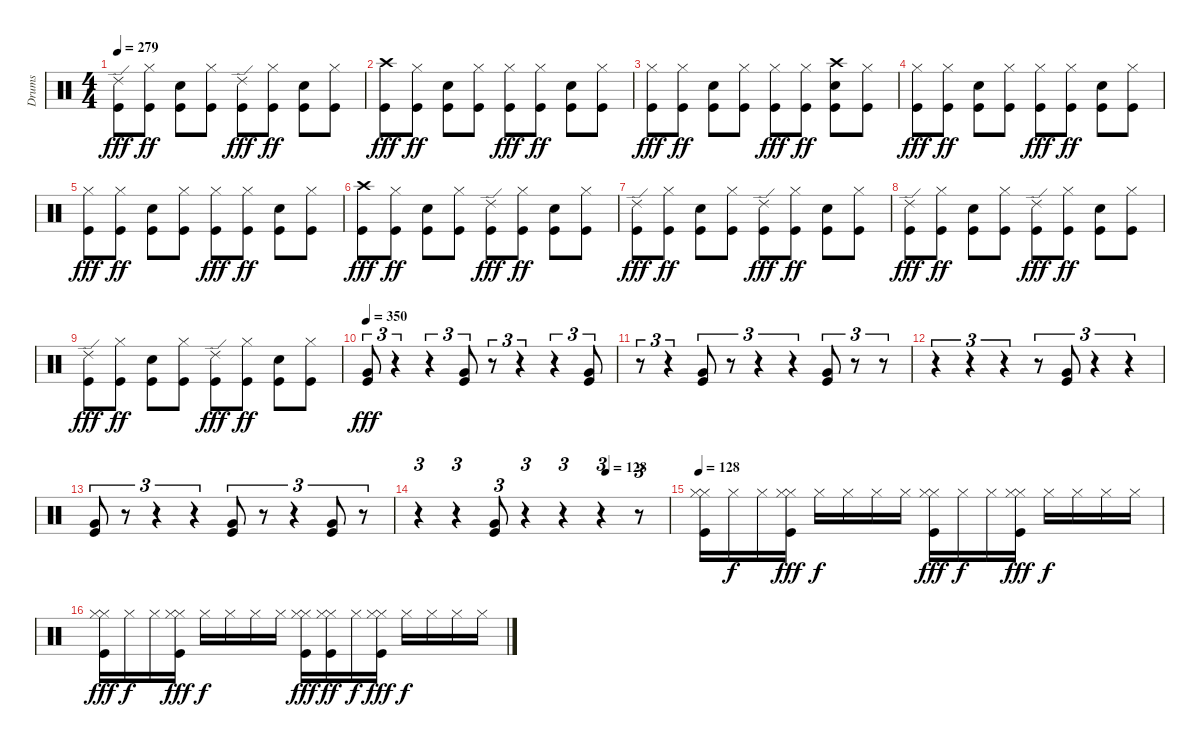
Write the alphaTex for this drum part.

\track ("Drums" "Drums") {instrument percussion}
\staff {score}
\articulation defaults
\ts (4 4)
\tempo 279
\clef neutral
\ks c
("Ride (edge) 2" "Kick (hit)").8{dy fff} ("Hi-Hat (closed)" "Kick (hit)").8{dy ff} ("Snare (hit) 2" "Kick (hit)").8 ("Hi-Hat (closed)" "Kick (hit)").8 ("Ride (edge) 2" "Kick (hit)").8{dy fff} ("Hi-Hat (closed)" "Kick (hit)").8{dy ff} ("Snare (hit) 2" "Kick (hit)").8 ("Hi-Hat (closed)" "Kick (hit)").8 |
("Crash high (hit)" "Kick (hit)").8{dy fff} ("Hi-Hat (closed)" "Kick (hit)").8{dy ff} ("Snare (hit) 2" "Kick (hit)").8 ("Hi-Hat (closed)" "Kick (hit)").8 ("Hi-Hat (closed)" "Kick (hit)").8{dy fff} ("Hi-Hat (closed)" "Kick (hit)").8{dy ff} ("Snare (hit) 2" "Kick (hit)").8 ("Hi-Hat (closed)" "Kick (hit)").8 |
("Hi-Hat (closed)" "Kick (hit)").8{dy fff} ("Hi-Hat (closed)" "Kick (hit)").8{dy ff} ("Snare (hit) 2" "Kick (hit)").8 ("Hi-Hat (closed)" "Kick (hit)").8 ("Hi-Hat (closed)" "Kick (hit)").8{dy fff} ("Hi-Hat (closed)" "Kick (hit)").8{dy ff} ("Crash high (hit)" "Snare (hit) 2" "Kick (hit)").8 ("Hi-Hat (closed)" "Kick (hit)").8 |
("Hi-Hat (closed)" "Kick (hit)").8{dy fff} ("Hi-Hat (closed)" "Kick (hit)").8{dy ff} ("Snare (hit) 2" "Kick (hit)").8 ("Hi-Hat (closed)" "Kick (hit)").8 ("Hi-Hat (closed)" "Kick (hit)").8{dy fff} ("Hi-Hat (closed)" "Kick (hit)").8{dy ff} ("Snare (hit) 2" "Kick (hit)").8 ("Hi-Hat (closed)" "Kick (hit)").8 |
("Hi-Hat (closed)" "Kick (hit)").8{dy fff} ("Hi-Hat (closed)" "Kick (hit)").8{dy ff} ("Snare (hit) 2" "Kick (hit)").8 ("Hi-Hat (closed)" "Kick (hit)").8 ("Hi-Hat (closed)" "Kick (hit)").8{dy fff} ("Hi-Hat (closed)" "Kick (hit)").8{dy ff} ("Snare (hit) 2" "Kick (hit)").8 ("Hi-Hat (closed)" "Kick (hit)").8 |
("Crash high (hit)" "Kick (hit)").8{dy fff} ("Hi-Hat (closed)" "Kick (hit)").8{dy ff} ("Snare (hit) 2" "Kick (hit)").8 ("Hi-Hat (closed)" "Kick (hit)").8 ("Ride (edge) 2" "Kick (hit)").8{dy fff} ("Hi-Hat (closed)" "Kick (hit)").8{dy ff} ("Snare (hit) 2" "Kick (hit)").8 ("Hi-Hat (closed)" "Kick (hit)").8 |
("Ride (edge) 2" "Kick (hit)").8{dy fff} ("Hi-Hat (closed)" "Kick (hit)").8{dy ff} ("Snare (hit) 2" "Kick (hit)").8 ("Hi-Hat (closed)" "Kick (hit)").8 ("Ride (edge) 2" "Kick (hit)").8{dy fff} ("Hi-Hat (closed)" "Kick (hit)").8{dy ff} ("Snare (hit) 2" "Kick (hit)").8 ("Hi-Hat (closed)" "Kick (hit)").8 |
("Ride (edge) 2" "Kick (hit)").8{dy fff} ("Hi-Hat (closed)" "Kick (hit)").8{dy ff} ("Snare (hit) 2" "Kick (hit)").8 ("Hi-Hat (closed)" "Kick (hit)").8 ("Ride (edge) 2" "Kick (hit)").8{dy fff} ("Hi-Hat (closed)" "Kick (hit)").8{dy ff} ("Snare (hit) 2" "Kick (hit)").8 ("Hi-Hat (closed)" "Kick (hit)").8 |
("Ride (edge) 2" "Kick (hit)").8{dy fff} ("Hi-Hat (closed)" "Kick (hit)").8{dy ff} ("Snare (hit) 2" "Kick (hit)").8 ("Hi-Hat (closed)" "Kick (hit)").8 ("Ride (edge) 2" "Kick (hit)").8{dy fff} ("Hi-Hat (closed)" "Kick (hit)").8{dy ff} ("Snare (hit) 2" "Kick (hit)").8 ("Hi-Hat (closed)" "Kick (hit)").8 |
\tempo 350
("Very Low Tom (hit)" "Kick (hit)").8{tu (3 2) dy fff} r.4{tu (3 2)} r.4{tu (3 2)} ("Very Low Tom (hit)" "Kick (hit)").8{tu (3 2)} r.8{tu (3 2)} r.4{tu (3 2)} r.4{tu (3 2)} ("Very Low Tom (hit)" "Kick (hit)").8{tu (3 2)} |
r.8{tu (3 2)} r.4{tu (3 2)} ("Very Low Tom (hit)" "Kick (hit)").8{tu (3 2)} r.8{tu (3 2)} r.4{tu (3 2)} r.4{tu (3 2)} ("Very Low Tom (hit)" "Kick (hit)").8{tu (3 2)} r.8{tu (3 2)} r.8{tu (3 2)} |
r.4{tu (3 2)} r.4{tu (3 2)} r.4{tu (3 2)} r.8{tu (3 2)} ("Very Low Tom (hit)" "Kick (hit)").8{tu (3 2)} r.4{tu (3 2)} r.4{tu (3 2)} |
("Very Low Tom (hit)" "Kick (hit)").8{tu (3 2)} r.8{tu (3 2)} r.4{tu (3 2)} r.4{tu (3 2)} ("Very Low Tom (hit)" "Kick (hit)").8{tu (3 2)} r.8{tu (3 2)} r.4{tu (3 2)} ("Very Low Tom (hit)" "Kick (hit)").8{tu (3 2)} r.8{tu (3 2)} |
\tempo (128 0.75)
r.4{tu (3 2)} r.4{tu (3 2)} ("Very Low Tom (hit)" "Kick (hit)").8{tu (3 2)} r.4{tu (3 2)} r.4{tu (3 2)} r.4{tu (3 2)} r.8{tu (3 2)} |
\tempo 128
("Hi-Hat (closed)" "Hi-Hat (closed)" "Kick (hit)").16 "Hi-Hat (closed)".16{dy f} "Hi-Hat (closed)".16 ("Hi-Hat (closed)" "Hi-Hat (closed)" "Kick (hit)").16{dy fff} "Hi-Hat (closed)".16{dy f} "Hi-Hat (closed)".16 "Hi-Hat (closed)".16 "Hi-Hat (closed)".16 ("Hi-Hat (closed)" "Hi-Hat (closed)" "Kick (hit)").16{dy fff} "Hi-Hat (closed)".16{dy f} "Hi-Hat (closed)".16 ("Hi-Hat (closed)" "Hi-Hat (closed)" "Kick (hit)").16{dy fff} "Hi-Hat (closed)".16{dy f} "Hi-Hat (closed)".16 "Hi-Hat (closed)".16 "Hi-Hat (closed)".16 |
("Hi-Hat (closed)" "Hi-Hat (closed)" "Kick (hit)").16{dy fff} "Hi-Hat (closed)".16{dy f} "Hi-Hat (closed)".16 ("Hi-Hat (closed)" "Hi-Hat (closed)" "Kick (hit)").16{dy fff} "Hi-Hat (closed)".16{dy f} "Hi-Hat (closed)".16 "Hi-Hat (closed)".16 "Hi-Hat (closed)".16 ("Hi-Hat (closed)" "Hi-Hat (closed)" "Kick (hit)").16{dy fff} ("Hi-Hat (closed)" "Hi-Hat (closed)" "Kick (hit)").16{dy ff} "Hi-Hat (closed)".16{dy f} ("Hi-Hat (closed)" "Hi-Hat (closed)" "Kick (hit)").16{dy fff} "Hi-Hat (closed)".16{dy f} "Hi-Hat (closed)".16 "Hi-Hat (closed)".16 "Hi-Hat (closed)".16
